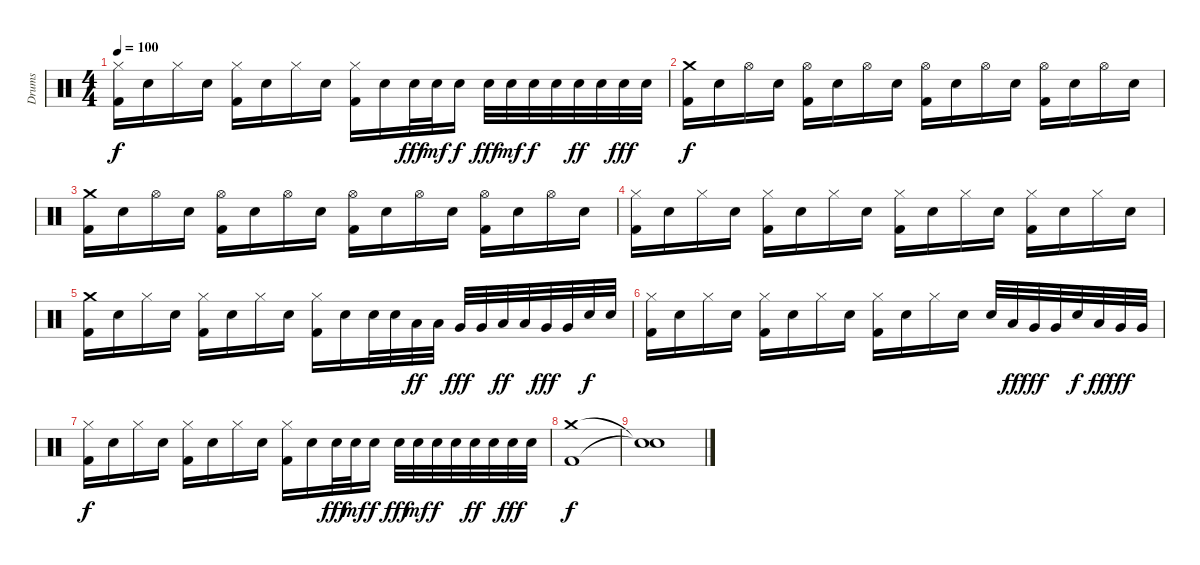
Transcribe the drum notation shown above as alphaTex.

\track ("Drums" "Drums") {instrument percussion}
\staff {score}
\articulation defaults
\ts (4 4)
\tempo 100
\clef neutral
\ks c
("Hi-Hat (closed)" "Kick (hit) 2").16{dy f} "Electric Snare (hit)".16 "Hi-Hat (closed)".16 "Electric Snare (hit)".16 ("Hi-Hat (closed)" "Kick (hit) 2").16 "Electric Snare (hit)".16 "Hi-Hat (closed)".16 "Electric Snare (hit)".16 ("Hi-Hat (closed)" "Kick (hit) 2").16 "Electric Snare (hit)".16 "Electric Snare (hit)".32{dy fff} "Electric Snare (hit)".32{dy mf} "Electric Snare (hit)".16{dy f} "Electric Snare (hit)".32{dy fff} "Electric Snare (hit)".32{dy mf} "Electric Snare (hit)".32{dy f} "Electric Snare (hit)".32 "Electric Snare (hit)".32{dy ff} "Electric Snare (hit)".32 "Electric Snare (hit)".32{dy fff} "Electric Snare (hit)".32 |
("Crash medium (hit)" "Kick (hit) 2").16{dy f} "Electric Snare (hit)".16 "Hi-Hat (open)".16 "Electric Snare (hit)".16 ("Hi-Hat (open)" "Kick (hit) 2").16 "Electric Snare (hit)".16 "Hi-Hat (open)".16 "Electric Snare (hit)".16 ("Hi-Hat (open)" "Kick (hit) 2").16 "Electric Snare (hit)".16 "Hi-Hat (open)".16 "Electric Snare (hit)".16 ("Hi-Hat (open)" "Kick (hit) 2").16 "Electric Snare (hit)".16 "Hi-Hat (open)".16 "Electric Snare (hit)".16 |
("Crash medium (hit)" "Kick (hit) 2").16 "Electric Snare (hit)".16 "Hi-Hat (open)".16 "Electric Snare (hit)".16 ("Hi-Hat (open)" "Kick (hit) 2").16 "Electric Snare (hit)".16 "Hi-Hat (open)".16 "Electric Snare (hit)".16 ("Hi-Hat (open)" "Kick (hit) 2").16 "Electric Snare (hit)".16 "Hi-Hat (open)".16 "Electric Snare (hit)".16 ("Hi-Hat (open)" "Kick (hit) 2").16 "Electric Snare (hit)".16 "Hi-Hat (open)".16 "Electric Snare (hit)".16 |
("Hi-Hat (closed)" "Kick (hit) 2").16 "Electric Snare (hit)".16 "Hi-Hat (closed)".16 "Electric Snare (hit)".16 ("Hi-Hat (closed)" "Kick (hit) 2").16 "Electric Snare (hit)".16 "Hi-Hat (closed)".16 "Electric Snare (hit)".16 ("Hi-Hat (closed)" "Kick (hit) 2").16 "Electric Snare (hit)".16 "Hi-Hat (closed)".16 "Electric Snare (hit)".16 ("Hi-Hat (closed)" "Kick (hit) 2").16 "Electric Snare (hit)".16 "Hi-Hat (closed)".16 "Electric Snare (hit)".16 |
("Crash medium (hit)" "Kick (hit) 2").16 "Electric Snare (hit)".16 "Hi-Hat (closed)".16 "Electric Snare (hit)".16 ("Hi-Hat (closed)" "Kick (hit) 2").16 "Electric Snare (hit)".16 "Hi-Hat (closed)".16 "Electric Snare (hit)".16 ("Hi-Hat (closed)" "Kick (hit) 2").16 "Electric Snare (hit)".16 "Electric Snare (hit)".32 "Electric Snare (hit)".32 "Low Tom (hit)".32{dy ff} "Low Tom (hit)".32 "Very Low Tom (hit)".32{dy fff} "Very Low Tom (hit)".32 "Low Tom (hit)".32{dy ff} "Low Tom (hit)".32 "Very Low Tom (hit)".32{dy fff} "Very Low Tom (hit)".32 "Electric Snare (hit)".32{dy f} "Electric Snare (hit)".32 |
("Hi-Hat (closed)" "Kick (hit) 2").16 "Electric Snare (hit)".16 "Hi-Hat (closed)".16 "Electric Snare (hit)".16 ("Hi-Hat (closed)" "Kick (hit) 2").16 "Electric Snare (hit)".16 "Hi-Hat (closed)".16 "Electric Snare (hit)".16 ("Hi-Hat (closed)" "Kick (hit) 2").16 "Electric Snare (hit)".16 "Hi-Hat (closed)".16 "Electric Snare (hit)".16 "Electric Snare (hit)".32 "Low Tom (hit)".32{dy ff} "Very Low Tom (hit)".32{dy fff} "Very Low Tom (hit)".32 "Electric Snare (hit)".32{dy f} "Low Tom (hit)".32{dy ff} "Very Low Tom (hit)".32{dy fff} "Very Low Tom (hit)".32 |
("Hi-Hat (closed)" "Kick (hit) 2").16{dy f} "Electric Snare (hit)".16 "Hi-Hat (closed)".16 "Electric Snare (hit)".16 ("Hi-Hat (closed)" "Kick (hit) 2").16 "Electric Snare (hit)".16 "Hi-Hat (closed)".16 "Electric Snare (hit)".16 ("Hi-Hat (closed)" "Kick (hit) 2").16 "Electric Snare (hit)".16 "Electric Snare (hit)".32{dy fff} "Electric Snare (hit)".32{dy mf} "Electric Snare (hit)".16{dy f} "Electric Snare (hit)".32{dy fff} "Electric Snare (hit)".32{dy mf} "Electric Snare (hit)".32{dy f} "Electric Snare (hit)".32 "Electric Snare (hit)".32{dy ff} "Electric Snare (hit)".32 "Electric Snare (hit)".32{dy fff} "Electric Snare (hit)".32 |
("Crash medium (hit)" "Kick (hit) 2").1{dy f} |
("Snare (hit)"{t} "Snare (hit)"{t}).1
